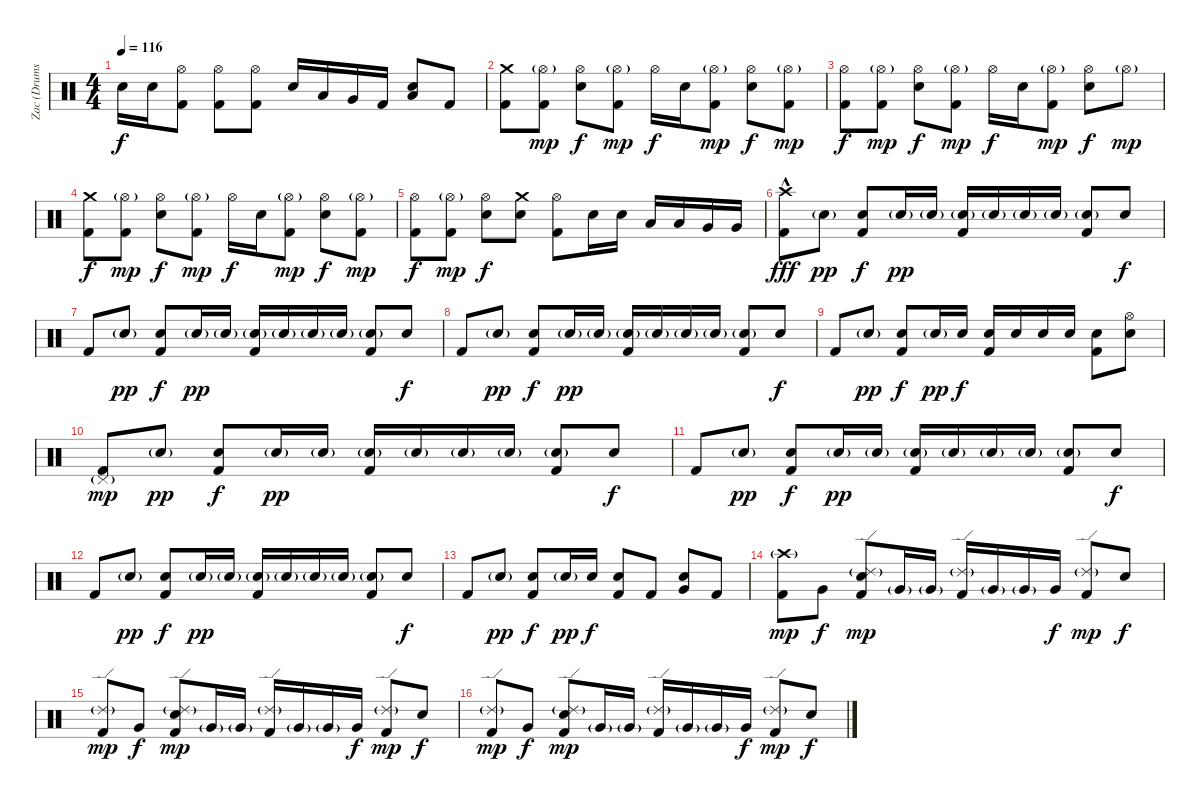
\track ("Zac (Drums)" "Zac (Drums") {instrument percussion}
\staff {score}
\articulation defaults
\ts (4 4)
\tempo 116
\clef neutral
\ks c "Electric Snare (hit)".16{dy f} "Electric Snare (hit)".16
("Hi-Hat (open)" "Kick (hit) 2").8 ("Hi-Hat (open)" "Kick (hit) 2").8 ("Hi-Hat (open)" "Kick (hit) 2").8 "Electric Snare (hit)".16 "Low Tom (hit)".16 "Very Low Tom (hit)".16 "Kick (hit) 2".16 ("Electric Snare (hit)" "Low Floor Tom (hit)").8 "Kick (hit) 2".8 |
("Crash medium (hit)" "Kick (hit) 2").8 ("Hi-Hat (open)"{g} "Kick (hit) 2").8{dy mp} ("Hi-Hat (open)" "Electric Snare (hit)").8{dy f} ("Hi-Hat (open)"{g} "Kick (hit) 2").8{dy mp} "Hi-Hat (open)".16{dy f} "Electric Snare (hit)".16 ("Hi-Hat (open)"{g} "Kick (hit) 2").8{dy mp} ("Hi-Hat (open)" "Electric Snare (hit)").8{dy f} ("Hi-Hat (open)"{g} "Kick (hit) 2").8{dy mp} |
("Hi-Hat (open)" "Kick (hit) 2").8{dy f} ("Hi-Hat (open)"{g} "Kick (hit) 2").8{dy mp} ("Hi-Hat (open)" "Electric Snare (hit)").8{dy f} ("Hi-Hat (open)"{g} "Kick (hit) 2").8{dy mp} "Hi-Hat (open)".16{dy f} "Electric Snare (hit)".16 ("Hi-Hat (open)"{g} "Kick (hit) 2").8{dy mp} ("Hi-Hat (open)" "Electric Snare (hit)").8{dy f} "Hi-Hat (open)"{g}.8{dy mp} |
("Crash medium (hit)" "Kick (hit) 2").8{dy f} ("Hi-Hat (open)"{g} "Kick (hit) 2").8{dy mp} ("Hi-Hat (open)" "Electric Snare (hit)").8{dy f} ("Hi-Hat (open)"{g} "Kick (hit) 2").8{dy mp} "Hi-Hat (open)".16{dy f} "Electric Snare (hit)".16 ("Hi-Hat (open)"{g} "Kick (hit) 2").8{dy mp} ("Hi-Hat (open)" "Electric Snare (hit)").8{dy f} ("Hi-Hat (open)"{g} "Kick (hit) 2").8{dy mp} |
("Hi-Hat (open)" "Kick (hit) 2").8{dy f} ("Hi-Hat (open)"{g} "Kick (hit) 2").8{dy mp} ("Hi-Hat (open)" "Electric Snare (hit)").8{dy f} ("Crash medium (hit)" "Electric Snare (hit)").8 ("Hi-Hat (open)" "Kick (hit) 2").8 "Electric Snare (hit)".16 "Electric Snare (hit)".16 "Low Tom (hit)".16 "Low Tom (hit)".16 "Very Low Tom (hit)".16 "Very Low Tom (hit)".16 |
("Crash high (hit)"{hac} "Kick (hit) 2").8{dy fff} "Electric Snare (hit)"{g}.8{dy pp} ("Electric Snare (hit)" "Kick (hit) 2").8{dy f} "Electric Snare (hit)"{g}.16{dy pp} "Electric Snare (hit)"{g}.16 ("Electric Snare (hit)"{g} "Kick (hit) 2").16 "Electric Snare (hit)"{g}.16 "Electric Snare (hit)"{g}.16 "Electric Snare (hit)"{g}.16 ("Electric Snare (hit)"{g} "Kick (hit) 2").8 "Electric Snare (hit)".8{dy f} |
"Kick (hit) 2".8 "Electric Snare (hit)"{g}.8{dy pp} ("Electric Snare (hit)" "Kick (hit) 2").8{dy f} "Electric Snare (hit)"{g}.16{dy pp} "Electric Snare (hit)"{g}.16 ("Electric Snare (hit)"{g} "Kick (hit) 2").16 "Electric Snare (hit)"{g}.16 "Electric Snare (hit)"{g}.16 "Electric Snare (hit)"{g}.16 ("Electric Snare (hit)"{g} "Kick (hit) 2").8 "Electric Snare (hit)".8{dy f} |
"Kick (hit) 2".8 "Electric Snare (hit)"{g}.8{dy pp} ("Electric Snare (hit)" "Kick (hit) 2").8{dy f} "Electric Snare (hit)"{g}.16{dy pp} "Electric Snare (hit)"{g}.16 ("Electric Snare (hit)"{g} "Kick (hit) 2").16 "Electric Snare (hit)"{g}.16 "Electric Snare (hit)"{g}.16 "Electric Snare (hit)"{g}.16 ("Electric Snare (hit)"{g} "Kick (hit) 2").8 "Electric Snare (hit)".8{dy f} |
"Kick (hit) 2".8 "Electric Snare (hit)"{g}.8{dy pp} ("Electric Snare (hit)" "Kick (hit) 2").8{dy f} "Electric Snare (hit)"{g}.16{dy pp} "Electric Snare (hit)".16{dy f} ("Electric Snare (hit)" "Kick (hit) 2").16 "Electric Snare (hit)".16 "Electric Snare (hit)".16 "Electric Snare (hit)".16 ("Electric Snare (hit)" "Kick (hit) 2").8 ("Hi-Hat (open)" "Electric Snare (hit)").8 |
("Pedal Hi-Hat (hit)"{g} "Kick (hit) 2").8{dy mp} "Electric Snare (hit)"{g}.8{dy pp} ("Electric Snare (hit)" "Kick (hit) 2").8{dy f} "Electric Snare (hit)"{g}.16{dy pp} "Electric Snare (hit)"{g}.16 ("Electric Snare (hit)"{g} "Kick (hit) 2").16 "Electric Snare (hit)"{g}.16 "Electric Snare (hit)"{g}.16 "Electric Snare (hit)"{g}.16 ("Electric Snare (hit)"{g} "Kick (hit) 2").8 "Electric Snare (hit)".8{dy f} |
"Kick (hit) 2".8 "Electric Snare (hit)"{g}.8{dy pp} ("Electric Snare (hit)" "Kick (hit) 2").8{dy f} "Electric Snare (hit)"{g}.16{dy pp} "Electric Snare (hit)"{g}.16 ("Electric Snare (hit)"{g} "Kick (hit) 2").16 "Electric Snare (hit)"{g}.16 "Electric Snare (hit)"{g}.16 "Electric Snare (hit)"{g}.16 ("Electric Snare (hit)"{g} "Kick (hit) 2").8 "Electric Snare (hit)".8{dy f} |
"Kick (hit) 2".8 "Electric Snare (hit)"{g}.8{dy pp} ("Electric Snare (hit)" "Kick (hit) 2").8{dy f} "Electric Snare (hit)"{g}.16{dy pp} "Electric Snare (hit)"{g}.16 ("Electric Snare (hit)"{g} "Kick (hit) 2").16 "Electric Snare (hit)"{g}.16 "Electric Snare (hit)"{g}.16 "Electric Snare (hit)"{g}.16 ("Electric Snare (hit)"{g} "Kick (hit) 2").8 "Electric Snare (hit)".8{dy f} |
"Kick (hit) 2".8 "Electric Snare (hit)"{g}.8{dy pp} ("Electric Snare (hit)" "Kick (hit) 2").8{dy f} "Electric Snare (hit)"{g}.16{dy pp} "Electric Snare (hit)".16{dy f} ("Electric Snare (hit)" "Kick (hit) 2").8 "Kick (hit) 2".8 ("Electric Snare (hit)" "Very Low Tom (hit)").8 "Kick (hit) 2".8 |
("Crash high (hit)"{g} "Kick (hit) 2").8{dy mp} "Very Low Tom (hit)".8{dy f} ("Ride (edge) 2"{g} "Snare (hit) 2" "Kick (hit) 2").8{dy mp} "Very Low Tom (hit)"{g}.16 "Very Low Tom (hit)"{g}.16 ("Ride (edge) 2"{g} "Kick (hit) 2").16 "Very Low Tom (hit)"{g}.16 "Very Low Tom (hit)"{g}.16 "Very Low Tom (hit)".16{dy f} ("Ride (edge) 2"{g} "Kick (hit) 2").8{dy mp} "Snare (hit) 2".8{dy f} |
("Ride (edge) 2"{g} "Kick (hit) 2").8{dy mp} "Very Low Tom (hit)".8{dy f} ("Ride (edge) 2"{g} "Snare (hit) 2" "Kick (hit) 2").8{dy mp} "Very Low Tom (hit)"{g}.16 "Very Low Tom (hit)"{g}.16 ("Ride (edge) 2"{g} "Kick (hit) 2").16 "Very Low Tom (hit)"{g}.16 "Very Low Tom (hit)"{g}.16 "Very Low Tom (hit)".16{dy f} ("Ride (edge) 2"{g} "Kick (hit) 2").8{dy mp} "Snare (hit) 2".8{dy f} |
("Ride (edge) 2"{g} "Kick (hit) 2").8{dy mp} "Very Low Tom (hit)".8{dy f} ("Ride (edge) 2"{g} "Snare (hit) 2" "Kick (hit) 2").8{dy mp} "Very Low Tom (hit)"{g}.16 "Very Low Tom (hit)"{g}.16 ("Ride (edge) 2"{g} "Kick (hit) 2").16 "Very Low Tom (hit)"{g}.16 "Very Low Tom (hit)"{g}.16 "Very Low Tom (hit)".16{dy f} ("Ride (edge) 2"{g} "Kick (hit) 2").8{dy mp} "Snare (hit) 2".8{dy f}
